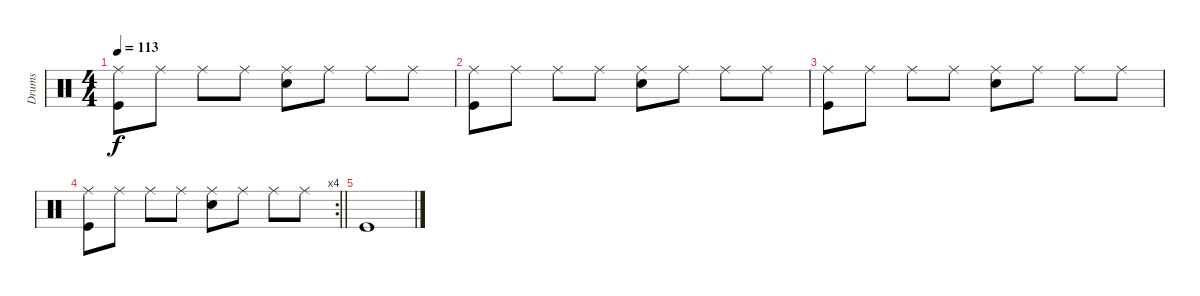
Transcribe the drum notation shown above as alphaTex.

\track ("Drums" "Drums") {instrument percussion}
\staff {score}
\articulation defaults
\ts (4 4)
\tempo 113
\clef neutral
\ks c
("Kick (hit)" "Ride (middle)").8{dy f} "Ride (middle)".8 "Ride (middle)".8 "Ride (middle)".8 ("Electric Snare (hit)" "Ride (middle)").8 "Ride (middle)".8 "Ride (middle)".8 "Ride (middle)".8 |
("Kick (hit)" "Ride (middle)").8 "Ride (middle)".8 "Ride (middle)".8 "Ride (middle)".8 ("Electric Snare (hit)" "Ride (middle)").8 "Ride (middle)".8 "Ride (middle)".8 "Ride (middle)".8 |
("Kick (hit)" "Ride (middle)").8 "Ride (middle)".8 "Ride (middle)".8 "Ride (middle)".8 ("Electric Snare (hit)" "Ride (middle)").8 "Ride (middle)".8 "Ride (middle)".8 "Ride (middle)".8 |
\rc 4
\barLineRight lightlight
("Kick (hit)" "Ride (middle)").8 "Ride (middle)".8 "Ride (middle)".8 "Ride (middle)".8 ("Electric Snare (hit)" "Ride (middle)").8 "Ride (middle)".8 "Ride (middle)".8 "Ride (middle)".8 |
"Kick (hit)".1
